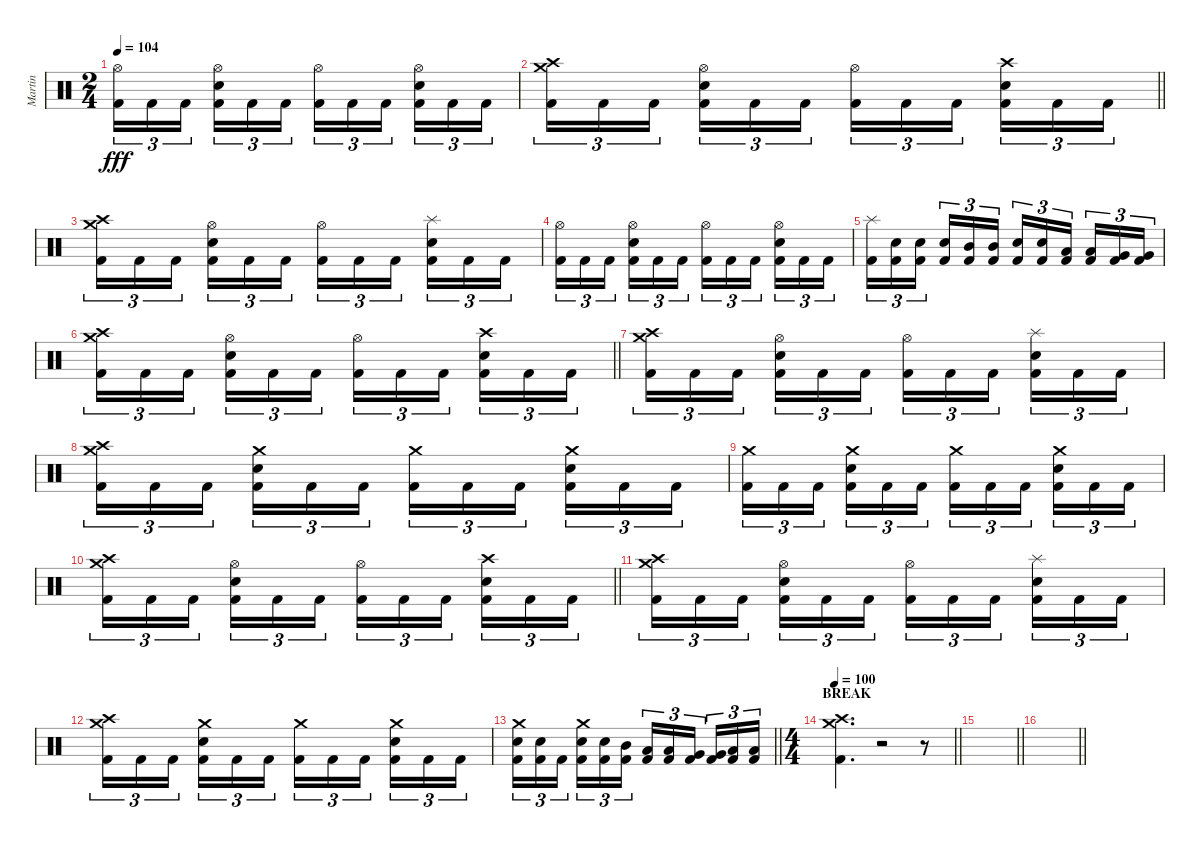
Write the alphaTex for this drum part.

\track ("Martin" "Martin") {instrument percussion}
\staff {score}
\articulation defaults
\ts (2 4)
\tempo 104
\clef neutral
\ks c
("Hi-Hat (open)" "Kick (hit) 2").16{tu (3 2) dy fff} "Kick (hit) 2".16{tu (3 2)} "Kick (hit) 2".16{tu (3 2) beam splitsecondary} ("Hi-Hat (open)" "Electric Snare (hit)" "Kick (hit) 2").16{tu (3 2)} "Kick (hit) 2".16{tu (3 2)} "Kick (hit) 2".16{tu (3 2)} ("Hi-Hat (open)" "Kick (hit) 2").16{tu (3 2)} "Kick (hit) 2".16{tu (3 2)} "Kick (hit) 2".16{tu (3 2) beam splitsecondary} ("Hi-Hat (open)" "Electric Snare (hit)" "Kick (hit) 2").16{tu (3 2)} "Kick (hit) 2".16{tu (3 2)} "Kick (hit) 2".16{tu (3 2)} |
\barLineRight lightlight
("Crash high (hit)" "Crash medium (hit)" "Kick (hit) 2").16{tu (3 2)} "Kick (hit) 2".16{tu (3 2)} "Kick (hit) 2".16{tu (3 2) beam splitsecondary} ("Hi-Hat (open)" "Electric Snare (hit)" "Kick (hit) 2").16{tu (3 2)} "Kick (hit) 2".16{tu (3 2)} "Kick (hit) 2".16{tu (3 2)} ("Hi-Hat (open)" "Kick (hit) 2").16{tu (3 2)} "Kick (hit) 2".16{tu (3 2)} "Kick (hit) 2".16{tu (3 2) beam splitsecondary} ("Crash high (hit)" "Electric Snare (hit)" "Kick (hit) 2").16{tu (3 2)} "Kick (hit) 2".16{tu (3 2)} "Kick (hit) 2".16{tu (3 2)} |
("Crash high (hit)" "Crash medium (hit)" "Kick (hit) 2").16{tu (3 2)} "Kick (hit) 2".16{tu (3 2)} "Kick (hit) 2".16{tu (3 2) beam splitsecondary} ("Hi-Hat (open)" "Electric Snare (hit)" "Kick (hit) 2").16{tu (3 2)} "Kick (hit) 2".16{tu (3 2)} "Kick (hit) 2".16{tu (3 2)} ("Hi-Hat (open)" "Kick (hit) 2").16{tu (3 2)} "Kick (hit) 2".16{tu (3 2)} "Kick (hit) 2".16{tu (3 2) beam splitsecondary} ("Splash (hit)" "Electric Snare (hit)" "Kick (hit) 2").16{tu (3 2)} "Kick (hit) 2".16{tu (3 2)} "Kick (hit) 2".16{tu (3 2)} |
("Hi-Hat (open)" "Kick (hit) 2").16{tu (3 2)} "Kick (hit) 2".16{tu (3 2)} "Kick (hit) 2".16{tu (3 2) beam splitsecondary} ("Hi-Hat (open)" "Electric Snare (hit)" "Kick (hit) 2").16{tu (3 2)} "Kick (hit) 2".16{tu (3 2)} "Kick (hit) 2".16{tu (3 2)} ("Hi-Hat (open)" "Kick (hit) 2").16{tu (3 2)} "Kick (hit) 2".16{tu (3 2)} "Kick (hit) 2".16{tu (3 2) beam splitsecondary} ("Hi-Hat (open)" "Electric Snare (hit)" "Kick (hit) 2").16{tu (3 2)} "Kick (hit) 2".16{tu (3 2)} "Kick (hit) 2".16{tu (3 2)} |
("Splash (hit)" "Kick (hit) 2").16{tu (3 2)} ("Electric Snare (hit)" "Kick (hit) 2").16{tu (3 2)} ("Electric Snare (hit)" "Kick (hit) 2").16{tu (3 2) beam splitsecondary} ("Electric Snare (hit)" "Kick (hit) 2").16{tu (3 2)} ("Mid Tom (hit)" "Kick (hit) 2").16{tu (3 2)} ("Mid Tom (hit)" "Kick (hit) 2").16{tu (3 2)} ("Electric Snare (hit)" "Kick (hit) 2").16{tu (3 2)} ("Electric Snare (hit)" "Kick (hit) 2").16{tu (3 2)} ("Low Tom (hit)" "Kick (hit) 2").16{tu (3 2) beam splitsecondary} ("Low Tom (hit)" "Kick (hit) 2").16{tu (3 2)} ("Very Low Tom (hit)" "Kick (hit) 2").16{tu (3 2)} ("Very Low Tom (hit)" "Kick (hit) 2").16{tu (3 2)} |
\barLineRight lightlight
("Crash high (hit)" "Crash medium (hit)" "Kick (hit) 2").16{tu (3 2)} "Kick (hit) 2".16{tu (3 2)} "Kick (hit) 2".16{tu (3 2) beam splitsecondary} ("Hi-Hat (open)" "Electric Snare (hit)" "Kick (hit) 2").16{tu (3 2)} "Kick (hit) 2".16{tu (3 2)} "Kick (hit) 2".16{tu (3 2)} ("Hi-Hat (open)" "Kick (hit) 2").16{tu (3 2)} "Kick (hit) 2".16{tu (3 2)} "Kick (hit) 2".16{tu (3 2) beam splitsecondary} ("Crash high (hit)" "Electric Snare (hit)" "Kick (hit) 2").16{tu (3 2)} "Kick (hit) 2".16{tu (3 2)} "Kick (hit) 2".16{tu (3 2)} |
("Crash high (hit)" "Crash medium (hit)" "Kick (hit) 2").16{tu (3 2)} "Kick (hit) 2".16{tu (3 2)} "Kick (hit) 2".16{tu (3 2) beam splitsecondary} ("Hi-Hat (open)" "Electric Snare (hit)" "Kick (hit) 2").16{tu (3 2)} "Kick (hit) 2".16{tu (3 2)} "Kick (hit) 2".16{tu (3 2)} ("Hi-Hat (open)" "Kick (hit) 2").16{tu (3 2)} "Kick (hit) 2".16{tu (3 2)} "Kick (hit) 2".16{tu (3 2) beam splitsecondary} ("Splash (hit)" "Electric Snare (hit)" "Kick (hit) 2").16{tu (3 2)} "Kick (hit) 2".16{tu (3 2)} "Kick (hit) 2".16{tu (3 2)} |
("Crash high (hit)" "Crash medium (hit)" "Kick (hit) 2").16{tu (3 2)} "Kick (hit) 2".16{tu (3 2)} "Kick (hit) 2".16{tu (3 2) beam splitsecondary} ("Crash medium (hit)" "Electric Snare (hit)" "Kick (hit) 2").16{tu (3 2)} "Kick (hit) 2".16{tu (3 2)} "Kick (hit) 2".16{tu (3 2)} ("Crash medium (hit)" "Kick (hit) 2").16{tu (3 2)} "Kick (hit) 2".16{tu (3 2)} "Kick (hit) 2".16{tu (3 2) beam splitsecondary} ("Crash medium (hit)" "Electric Snare (hit)" "Kick (hit) 2").16{tu (3 2)} "Kick (hit) 2".16{tu (3 2)} "Kick (hit) 2".16{tu (3 2)} |
("Crash medium (hit)" "Kick (hit) 2").16{tu (3 2)} "Kick (hit) 2".16{tu (3 2)} "Kick (hit) 2".16{tu (3 2) beam splitsecondary} ("Crash medium (hit)" "Electric Snare (hit)" "Kick (hit) 2").16{tu (3 2)} "Kick (hit) 2".16{tu (3 2)} "Kick (hit) 2".16{tu (3 2)} ("Crash medium (hit)" "Kick (hit) 2").16{tu (3 2)} "Kick (hit) 2".16{tu (3 2)} "Kick (hit) 2".16{tu (3 2) beam splitsecondary} ("Crash medium (hit)" "Electric Snare (hit)" "Kick (hit) 2").16{tu (3 2)} "Kick (hit) 2".16{tu (3 2)} "Kick (hit) 2".16{tu (3 2)} |
\barLineRight lightlight
("Crash high (hit)" "Crash medium (hit)" "Kick (hit) 2").16{tu (3 2)} "Kick (hit) 2".16{tu (3 2)} "Kick (hit) 2".16{tu (3 2) beam splitsecondary} ("Hi-Hat (open)" "Electric Snare (hit)" "Kick (hit) 2").16{tu (3 2)} "Kick (hit) 2".16{tu (3 2)} "Kick (hit) 2".16{tu (3 2)} ("Hi-Hat (open)" "Kick (hit) 2").16{tu (3 2)} "Kick (hit) 2".16{tu (3 2)} "Kick (hit) 2".16{tu (3 2) beam splitsecondary} ("Crash high (hit)" "Electric Snare (hit)" "Kick (hit) 2").16{tu (3 2)} "Kick (hit) 2".16{tu (3 2)} "Kick (hit) 2".16{tu (3 2)} |
("Crash high (hit)" "Crash medium (hit)" "Kick (hit) 2").16{tu (3 2)} "Kick (hit) 2".16{tu (3 2)} "Kick (hit) 2".16{tu (3 2) beam splitsecondary} ("Hi-Hat (open)" "Electric Snare (hit)" "Kick (hit) 2").16{tu (3 2)} "Kick (hit) 2".16{tu (3 2)} "Kick (hit) 2".16{tu (3 2)} ("Hi-Hat (open)" "Kick (hit) 2").16{tu (3 2)} "Kick (hit) 2".16{tu (3 2)} "Kick (hit) 2".16{tu (3 2) beam splitsecondary} ("Splash (hit)" "Electric Snare (hit)" "Kick (hit) 2").16{tu (3 2)} "Kick (hit) 2".16{tu (3 2)} "Kick (hit) 2".16{tu (3 2)} |
("Crash high (hit)" "Crash medium (hit)" "Kick (hit) 2").16{tu (3 2)} "Kick (hit) 2".16{tu (3 2)} "Kick (hit) 2".16{tu (3 2) beam splitsecondary} ("Crash medium (hit)" "Electric Snare (hit)" "Kick (hit) 2").16{tu (3 2)} "Kick (hit) 2".16{tu (3 2)} "Kick (hit) 2".16{tu (3 2)} ("Crash medium (hit)" "Kick (hit) 2").16{tu (3 2)} "Kick (hit) 2".16{tu (3 2)} "Kick (hit) 2".16{tu (3 2) beam splitsecondary} ("Crash medium (hit)" "Electric Snare (hit)" "Kick (hit) 2").16{tu (3 2)} "Kick (hit) 2".16{tu (3 2)} "Kick (hit) 2".16{tu (3 2)} |
\barLineRight lightlight
("Crash medium (hit)" "Electric Snare (hit)" "Kick (hit) 2").16{tu (3 2)} ("Electric Snare (hit)" "Kick (hit) 2").16{tu (3 2)} "Kick (hit) 2".16{tu (3 2) beam splitsecondary} ("Crash medium (hit)" "Electric Snare (hit)" "Kick (hit) 2").16{tu (3 2)} ("Electric Snare (hit)" "Kick (hit) 2").16{tu (3 2)} ("Mid Tom (hit)" "Kick (hit) 2").16{tu (3 2)} ("Low Tom (hit)" "Kick (hit) 2").16{tu (3 2)} ("Low Tom (hit)" "Kick (hit) 2").16{tu (3 2)} ("Very Low Tom (hit)" "Kick (hit) 2").16{tu (3 2) beam splitsecondary} ("Very Low Tom (hit)" "Kick (hit) 2").16{tu (3 2)} ("Low Floor Tom (hit)" "Kick (hit) 2").16{tu (3 2)} ("Low Floor Tom (hit)" "Kick (hit) 2").16{tu (3 2)} |
\ts (4 4)
\section ("" "BREAK")
\tempo 100
\barLineRight lightlight
("Crash high (hit)" "Crash medium (hit)" "Kick (hit) 2").4{d} r.2 r.8 |
\barLineRight lightlight
|
\barLineRight lightlight
